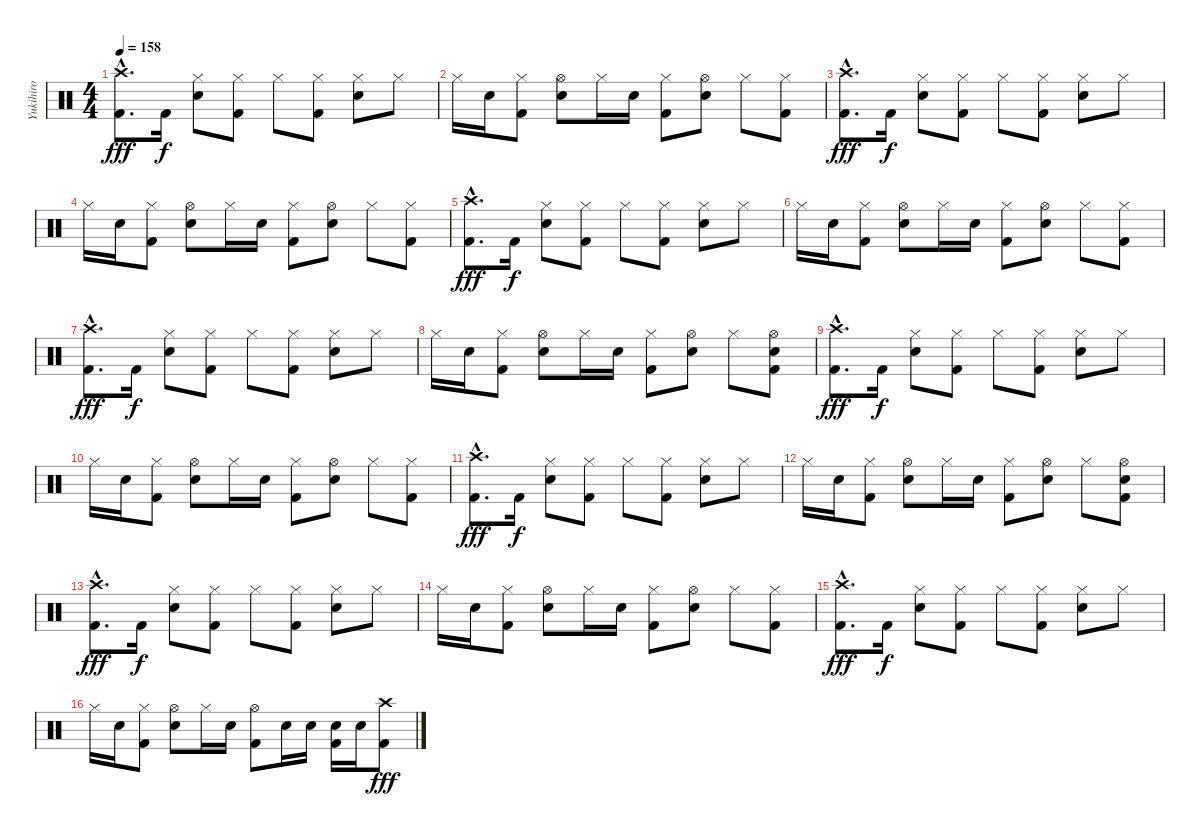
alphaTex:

\track ("Yukihiro" "Yukihiro") {instrument percussion}
\staff {score}
\articulation defaults
\ts (4 4)
\tempo 158
\clef neutral
\ks c
("Crash high (hit)"{hac} "Kick (hit) 2"{hac}).8{d dy fff} "Kick (hit) 2".16{dy f} ("Hi-Hat (closed)" "Snare (hit) 2").8 ("Hi-Hat (closed)" "Kick (hit) 2").8 "Hi-Hat (closed)".8 ("Hi-Hat (closed)" "Kick (hit) 2").8 ("Hi-Hat (closed)" "Snare (hit) 2").8 "Hi-Hat (closed)".8 |
"Hi-Hat (closed)".16 "Snare (hit) 2".16 ("Hi-Hat (closed)" "Kick (hit) 2").8 ("Hi-Hat (open)" "Snare (hit) 2").8 "Hi-Hat (closed)".16 "Snare (hit) 2".16 ("Hi-Hat (closed)" "Kick (hit) 2").8 ("Hi-Hat (open)" "Snare (hit) 2").8 "Hi-Hat (closed)".8 ("Hi-Hat (closed)" "Kick (hit) 2").8 |
("Crash high (hit)"{hac} "Kick (hit) 2"{hac}).8{d dy fff} "Kick (hit) 2".16{dy f} ("Hi-Hat (closed)" "Snare (hit) 2").8 ("Hi-Hat (closed)" "Kick (hit) 2").8 "Hi-Hat (closed)".8 ("Hi-Hat (closed)" "Kick (hit) 2").8 ("Hi-Hat (closed)" "Snare (hit) 2").8 "Hi-Hat (closed)".8 |
"Hi-Hat (closed)".16 "Snare (hit) 2".16 ("Hi-Hat (closed)" "Kick (hit) 2").8 ("Hi-Hat (open)" "Snare (hit) 2").8 "Hi-Hat (closed)".16 "Snare (hit) 2".16 ("Hi-Hat (closed)" "Kick (hit) 2").8 ("Hi-Hat (open)" "Snare (hit) 2").8 "Hi-Hat (closed)".8 ("Hi-Hat (closed)" "Kick (hit) 2").8 |
("Crash high (hit)"{hac} "Kick (hit) 2"{hac}).8{d dy fff} "Kick (hit) 2".16{dy f} ("Hi-Hat (closed)" "Snare (hit) 2").8 ("Hi-Hat (closed)" "Kick (hit) 2").8 "Hi-Hat (closed)".8 ("Hi-Hat (closed)" "Kick (hit) 2").8 ("Hi-Hat (closed)" "Snare (hit) 2").8 "Hi-Hat (closed)".8 |
"Hi-Hat (closed)".16 "Snare (hit) 2".16 ("Hi-Hat (closed)" "Kick (hit) 2").8 ("Hi-Hat (open)" "Snare (hit) 2").8 "Hi-Hat (closed)".16 "Snare (hit) 2".16 ("Hi-Hat (closed)" "Kick (hit) 2").8 ("Hi-Hat (open)" "Snare (hit) 2").8 "Hi-Hat (closed)".8 ("Hi-Hat (closed)" "Kick (hit) 2").8 |
("Crash high (hit)"{hac} "Kick (hit) 2"{hac}).8{d dy fff} "Kick (hit) 2".16{dy f} ("Hi-Hat (closed)" "Snare (hit) 2").8 ("Hi-Hat (closed)" "Kick (hit) 2").8 "Hi-Hat (closed)".8 ("Hi-Hat (closed)" "Kick (hit) 2").8 ("Hi-Hat (closed)" "Snare (hit) 2").8 "Hi-Hat (closed)".8 |
"Hi-Hat (closed)".16 "Snare (hit) 2".16 ("Hi-Hat (closed)" "Kick (hit) 2").8 ("Hi-Hat (open)" "Snare (hit) 2").8 "Hi-Hat (closed)".16 "Snare (hit) 2".16 ("Hi-Hat (closed)" "Kick (hit) 2").8 ("Hi-Hat (open)" "Snare (hit) 2").8 "Hi-Hat (closed)".8 ("Hi-Hat (open)" "Snare (hit) 2" "Kick (hit) 2").8 |
("Crash high (hit)"{hac} "Kick (hit) 2"{hac}).8{d dy fff} "Kick (hit) 2".16{dy f} ("Hi-Hat (closed)" "Snare (hit) 2").8 ("Hi-Hat (closed)" "Kick (hit) 2").8 "Hi-Hat (closed)".8 ("Hi-Hat (closed)" "Kick (hit) 2").8 ("Hi-Hat (closed)" "Snare (hit) 2").8 "Hi-Hat (closed)".8 |
"Hi-Hat (closed)".16 "Snare (hit) 2".16 ("Hi-Hat (closed)" "Kick (hit) 2").8 ("Hi-Hat (open)" "Snare (hit) 2").8 "Hi-Hat (closed)".16 "Snare (hit) 2".16 ("Hi-Hat (closed)" "Kick (hit) 2").8 ("Hi-Hat (open)" "Snare (hit) 2").8 "Hi-Hat (closed)".8 ("Hi-Hat (closed)" "Kick (hit) 2").8 |
("Crash high (hit)"{hac} "Kick (hit) 2"{hac}).8{d dy fff} "Kick (hit) 2".16{dy f} ("Hi-Hat (closed)" "Snare (hit) 2").8 ("Hi-Hat (closed)" "Kick (hit) 2").8 "Hi-Hat (closed)".8 ("Hi-Hat (closed)" "Kick (hit) 2").8 ("Hi-Hat (closed)" "Snare (hit) 2").8 "Hi-Hat (closed)".8 |
"Hi-Hat (closed)".16 "Snare (hit) 2".16 ("Hi-Hat (closed)" "Kick (hit) 2").8 ("Hi-Hat (open)" "Snare (hit) 2").8 "Hi-Hat (closed)".16 "Snare (hit) 2".16 ("Hi-Hat (closed)" "Kick (hit) 2").8 ("Hi-Hat (open)" "Snare (hit) 2").8 "Hi-Hat (closed)".8 ("Hi-Hat (open)" "Snare (hit) 2" "Kick (hit) 2").8 |
("Crash high (hit)"{hac} "Kick (hit) 2"{hac}).8{d dy fff} "Kick (hit) 2".16{dy f} ("Hi-Hat (closed)" "Snare (hit) 2").8 ("Hi-Hat (closed)" "Kick (hit) 2").8 "Hi-Hat (closed)".8 ("Hi-Hat (closed)" "Kick (hit) 2").8 ("Hi-Hat (closed)" "Snare (hit) 2").8 "Hi-Hat (closed)".8 |
"Hi-Hat (closed)".16 "Snare (hit) 2".16 ("Hi-Hat (closed)" "Kick (hit) 2").8 ("Hi-Hat (open)" "Snare (hit) 2").8 "Hi-Hat (closed)".16 "Snare (hit) 2".16 ("Hi-Hat (closed)" "Kick (hit) 2").8 ("Hi-Hat (open)" "Snare (hit) 2").8 "Hi-Hat (closed)".8 ("Hi-Hat (closed)" "Kick (hit) 2").8 |
("Crash high (hit)"{hac} "Kick (hit) 2"{hac}).8{d dy fff} "Kick (hit) 2".16{dy f} ("Hi-Hat (closed)" "Snare (hit) 2").8 ("Hi-Hat (closed)" "Kick (hit) 2").8 "Hi-Hat (closed)".8 ("Hi-Hat (closed)" "Kick (hit) 2").8 ("Hi-Hat (closed)" "Snare (hit) 2").8 "Hi-Hat (closed)".8 |
"Hi-Hat (closed)".16 "Snare (hit) 2".16 ("Hi-Hat (closed)" "Kick (hit) 2").8 ("Hi-Hat (open)" "Snare (hit) 2").8 "Hi-Hat (closed)".16 "Snare (hit) 2".16 ("Hi-Hat (open)" "Kick (hit) 2").8 "Snare (hit) 2".16 "Snare (hit) 2".16 ("Snare (hit) 2" "Kick (hit) 2").16 "Snare (hit) 2".16 ("Crash high (hit)" "Kick (hit) 2").8{dy fff}
